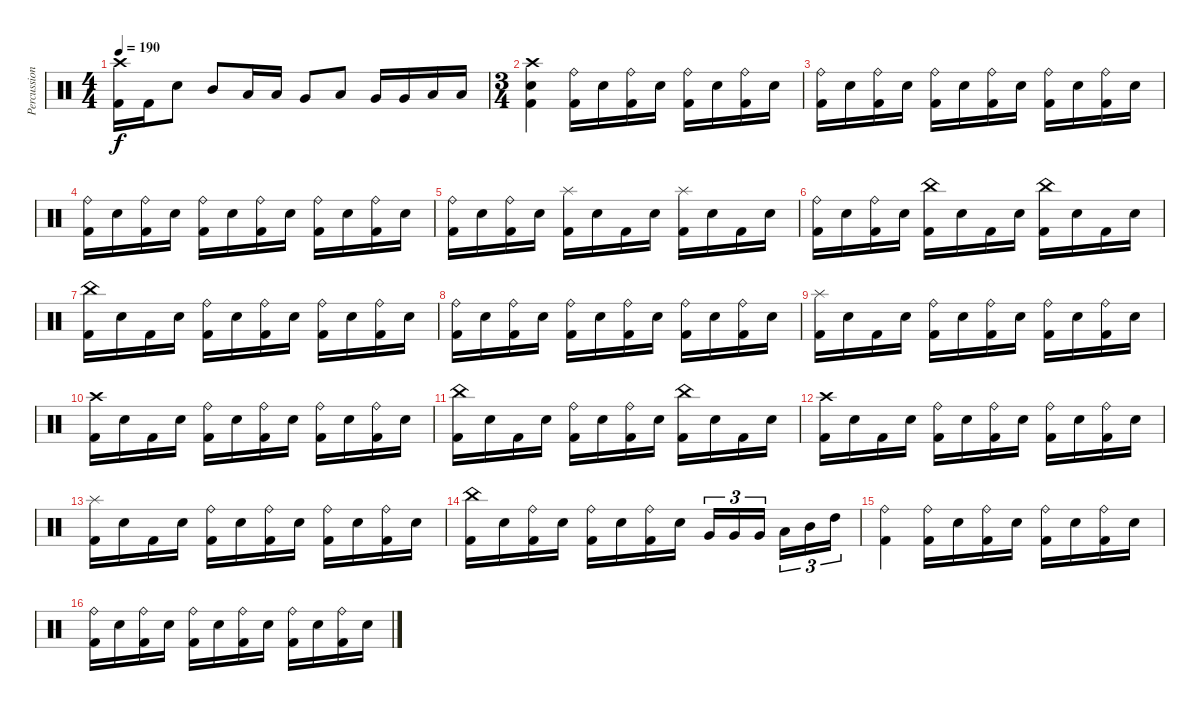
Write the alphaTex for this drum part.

\track ("Percussion" "Percussion") {instrument percussion}
\staff {score}
\articulation defaults
\ts (4 4)
\tempo 190
\clef neutral
\ks c
("Crash high (hit)" "Kick (hit) 2").16{dy f} "Kick (hit) 2".16 "Electric Snare (hit)".8 "Mid Tom (hit)".8 "Low Tom (hit)".16 "Low Tom (hit)".16 "Very Low Tom (hit)".8 "Low Tom (hit)".8 "Very Low Tom (hit)".16 "Very Low Tom (hit)".16 "Low Floor Tom (hit)".16 "Low Floor Tom (hit)".16 |
\ts (3 4)
("Crash high (hit)" "Electric Snare (hit)" "Kick (hit) 2").4 ("Ride (bell)" "Kick (hit) 2").16 "Electric Snare (hit)".16 ("Ride (bell)" "Kick (hit) 2").16 "Electric Snare (hit)".16 ("Ride (bell)" "Kick (hit) 2").16 "Electric Snare (hit)".16 ("Ride (bell)" "Kick (hit) 2").16 "Electric Snare (hit)".16 |
("Ride (bell)" "Kick (hit) 2").16 "Electric Snare (hit)".16 ("Ride (bell)" "Kick (hit) 2").16 "Electric Snare (hit)".16 ("Ride (bell)" "Kick (hit) 2").16 "Electric Snare (hit)".16 ("Ride (bell)" "Kick (hit) 2").16 "Electric Snare (hit)".16 ("Ride (bell)" "Kick (hit) 2").16 "Electric Snare (hit)".16 ("Ride (bell)" "Kick (hit) 2").16 "Electric Snare (hit)".16 |
("Ride (bell)" "Kick (hit) 2").16 "Electric Snare (hit)".16 ("Ride (bell)" "Kick (hit) 2").16 "Electric Snare (hit)".16 ("Ride (bell)" "Kick (hit) 2").16 "Electric Snare (hit)".16 ("Ride (bell)" "Kick (hit) 2").16 "Electric Snare (hit)".16 ("Ride (bell)" "Kick (hit) 2").16 "Electric Snare (hit)".16 ("Ride (bell)" "Kick (hit) 2").16 "Electric Snare (hit)".16 |
("Ride (bell)" "Kick (hit) 2").16 "Electric Snare (hit)".16 ("Ride (bell)" "Kick (hit) 2").16 "Electric Snare (hit)".16 ("Splash (hit)" "Kick (hit) 2").16 "Electric Snare (hit)".16 "Kick (hit) 2".16 "Electric Snare (hit)".16 ("Splash (hit)" "Kick (hit) 2").16 "Electric Snare (hit)".16 "Kick (hit) 2".16 "Electric Snare (hit)".16 |
("Ride (bell)" "Kick (hit) 2").16 "Electric Snare (hit)".16 ("Ride (bell)" "Kick (hit) 2").16 "Electric Snare (hit)".16 ("China (hit)" "Kick (hit) 2").16 "Electric Snare (hit)".16 "Kick (hit) 2".16 "Electric Snare (hit)".16 ("China (hit)" "Kick (hit) 2").16 "Electric Snare (hit)".16 "Kick (hit) 2".16 "Electric Snare (hit)".16 |
("China (hit)" "Kick (hit) 2").16 "Electric Snare (hit)".16 "Kick (hit) 2".16 "Electric Snare (hit)".16 ("Ride (bell)" "Kick (hit) 2").16 "Electric Snare (hit)".16 ("Ride (bell)" "Kick (hit) 2").16 "Electric Snare (hit)".16 ("Ride (bell)" "Kick (hit) 2").16 "Electric Snare (hit)".16 ("Ride (bell)" "Kick (hit) 2").16 "Electric Snare (hit)".16 |
("Ride (bell)" "Kick (hit) 2").16 "Electric Snare (hit)".16 ("Ride (bell)" "Kick (hit) 2").16 "Electric Snare (hit)".16 ("Ride (bell)" "Kick (hit) 2").16 "Electric Snare (hit)".16 ("Ride (bell)" "Kick (hit) 2").16 "Electric Snare (hit)".16 ("Ride (bell)" "Kick (hit) 2").16 "Electric Snare (hit)".16 ("Ride (bell)" "Kick (hit) 2").16 "Electric Snare (hit)".16 |
("Splash (hit)" "Kick (hit) 2").16 "Electric Snare (hit)".16 "Kick (hit) 2".16 "Electric Snare (hit)".16 ("Ride (bell)" "Kick (hit) 2").16 "Electric Snare (hit)".16 ("Ride (bell)" "Kick (hit) 2").16 "Electric Snare (hit)".16 ("Ride (bell)" "Kick (hit) 2").16 "Electric Snare (hit)".16 ("Ride (bell)" "Kick (hit) 2").16 "Electric Snare (hit)".16 |
("Crash high (hit)" "Kick (hit) 2").16 "Electric Snare (hit)".16 "Kick (hit) 2".16 "Electric Snare (hit)".16 ("Ride (bell)" "Kick (hit) 2").16 "Electric Snare (hit)".16 ("Ride (bell)" "Kick (hit) 2").16 "Electric Snare (hit)".16 ("Ride (bell)" "Kick (hit) 2").16 "Electric Snare (hit)".16 ("Ride (bell)" "Kick (hit) 2").16 "Electric Snare (hit)".16 |
("China (hit)" "Kick (hit) 2").16 "Electric Snare (hit)".16 "Kick (hit) 2".16 "Electric Snare (hit)".16 ("Ride (bell)" "Kick (hit) 2").16 "Electric Snare (hit)".16 ("Ride (bell)" "Kick (hit) 2").16 "Electric Snare (hit)".16 ("China (hit)" "Kick (hit) 2").16 "Electric Snare (hit)".16 "Kick (hit) 2".16 "Electric Snare (hit)".16 |
("Crash high (hit)" "Kick (hit) 2").16 "Electric Snare (hit)".16 "Kick (hit) 2".16 "Electric Snare (hit)".16 ("Ride (bell)" "Kick (hit) 2").16 "Electric Snare (hit)".16 ("Ride (bell)" "Kick (hit) 2").16 "Electric Snare (hit)".16 ("Ride (bell)" "Kick (hit) 2").16 "Electric Snare (hit)".16 ("Ride (bell)" "Kick (hit) 2").16 "Electric Snare (hit)".16 |
("Splash (hit)" "Kick (hit) 2").16 "Electric Snare (hit)".16 "Kick (hit) 2".16 "Electric Snare (hit)".16 ("Ride (bell)" "Kick (hit) 2").16 "Electric Snare (hit)".16 ("Ride (bell)" "Kick (hit) 2").16 "Electric Snare (hit)".16 ("Ride (bell)" "Kick (hit) 2").16 "Electric Snare (hit)".16 ("Ride (bell)" "Kick (hit) 2").16 "Electric Snare (hit)".16 |
("China (hit)" "Kick (hit) 2").16 "Electric Snare (hit)".16 ("Ride (bell)" "Kick (hit) 2").16 "Electric Snare (hit)".16 ("Ride (bell)" "Kick (hit) 2").16 "Electric Snare (hit)".16 ("Ride (bell)" "Kick (hit) 2").16 "Electric Snare (hit)".16 "Very Low Tom (hit)".16{tu (3 2)} "Very Low Tom (hit)".16{tu (3 2)} "Very Low Tom (hit)".16{tu (3 2)} "Low Tom (hit)".16{tu (3 2)} "Mid Tom (hit)".16{tu (3 2)} "High Tom (hit)".16{tu (3 2)} |
("Ride (bell)" "Kick (hit) 2").4 ("Ride (bell)" "Kick (hit) 2").16 "Electric Snare (hit)".16 ("Ride (bell)" "Kick (hit) 2").16 "Electric Snare (hit)".16 ("Ride (bell)" "Kick (hit) 2").16 "Electric Snare (hit)".16 ("Ride (bell)" "Kick (hit) 2").16 "Electric Snare (hit)".16 |
("Ride (bell)" "Kick (hit) 2").16 "Electric Snare (hit)".16 ("Ride (bell)" "Kick (hit) 2").16 "Electric Snare (hit)".16 ("Ride (bell)" "Kick (hit) 2").16 "Electric Snare (hit)".16 ("Ride (bell)" "Kick (hit) 2").16 "Electric Snare (hit)".16 ("Ride (bell)" "Kick (hit) 2").16 "Electric Snare (hit)".16 ("Ride (bell)" "Kick (hit) 2").16 "Electric Snare (hit)".16
